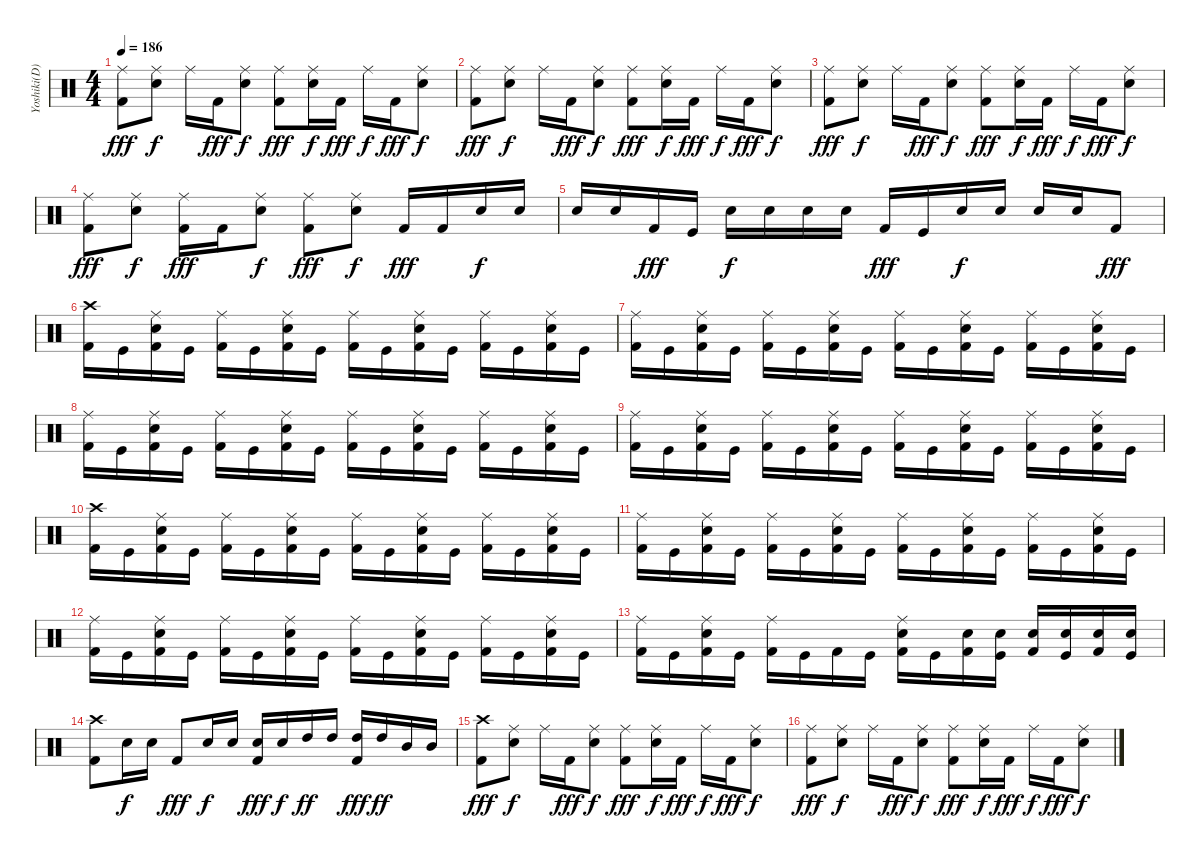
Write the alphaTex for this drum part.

\track ("Yoshiki(D)" "Yoshiki(D)") {instrument percussion}
\staff {score}
\articulation defaults
\ts (4 4)
\tempo 186
\clef neutral
\ks c
("Ride (middle)" "Kick (hit) 2").8{dy fff} ("Ride (middle)" "Electric Snare (hit)").8{dy f} "Ride (middle)".16 "Kick (hit) 2".16{dy fff} ("Ride (middle)" "Electric Snare (hit)").8{dy f} ("Ride (middle)" "Kick (hit) 2").8{dy fff} ("Ride (middle)" "Electric Snare (hit)").16{dy f} "Kick (hit) 2".16{dy fff} "Ride (middle)".16{dy f} "Kick (hit) 2".16{dy fff} ("Ride (middle)" "Electric Snare (hit)").8{dy f} |
("Ride (middle)" "Kick (hit) 2").8{dy fff} ("Ride (middle)" "Electric Snare (hit)").8{dy f} "Ride (middle)".16 "Kick (hit) 2".16{dy fff} ("Ride (middle)" "Electric Snare (hit)").8{dy f} ("Ride (middle)" "Kick (hit) 2").8{dy fff} ("Ride (middle)" "Electric Snare (hit)").16{dy f} "Kick (hit) 2".16{dy fff} "Ride (middle)".16{dy f} "Kick (hit) 2".16{dy fff} ("Ride (middle)" "Electric Snare (hit)").8{dy f} |
("Ride (middle)" "Kick (hit) 2").8{dy fff} ("Ride (middle)" "Electric Snare (hit)").8{dy f} "Ride (middle)".16 "Kick (hit) 2".16{dy fff} ("Ride (middle)" "Electric Snare (hit)").8{dy f} ("Ride (middle)" "Kick (hit) 2").8{dy fff} ("Ride (middle)" "Electric Snare (hit)").16{dy f} "Kick (hit) 2".16{dy fff} "Ride (middle)".16{dy f} "Kick (hit) 2".16{dy fff} ("Ride (middle)" "Electric Snare (hit)").8{dy f} |
("Ride (middle)" "Kick (hit) 2").8{dy fff} ("Ride (middle)" "Electric Snare (hit)").8{dy f} ("Ride (middle)" "Kick (hit) 2").16{dy fff} "Kick (hit) 2".16 ("Ride (middle)" "Electric Snare (hit)").8{dy f} ("Ride (middle)" "Kick (hit) 2").8{dy fff} ("Ride (middle)" "Electric Snare (hit)").8{dy f} "Kick (hit) 2".16{dy fff} "Kick (hit) 2".16 "Electric Snare (hit)".16{dy f} "Electric Snare (hit)".16 |
"Electric Snare (hit)".16 "Electric Snare (hit)".16 "Kick (hit) 2".16{dy fff} "Kick (hit)".16 "Electric Snare (hit)".16{dy f} "Electric Snare (hit)".16 "Electric Snare (hit)".16 "Electric Snare (hit)".16 "Kick (hit) 2".16{dy fff} "Kick (hit)".16 "Electric Snare (hit)".16{dy f} "Electric Snare (hit)".16 "Electric Snare (hit)".16 "Electric Snare (hit)".16 "Kick (hit) 2".8{dy fff} |
("Crash high (hit)" "Kick (hit) 2").16 "Kick (hit)".16 ("Ride (middle)" "Electric Snare (hit)" "Kick (hit) 2").16 "Kick (hit)".16 ("Ride (middle)" "Kick (hit) 2").16 "Kick (hit)".16 ("Ride (middle)" "Electric Snare (hit)" "Kick (hit) 2").16 "Kick (hit)".16 ("Ride (middle)" "Kick (hit) 2").16 "Kick (hit)".16 ("Ride (middle)" "Electric Snare (hit)" "Kick (hit) 2").16 "Kick (hit)".16 ("Ride (middle)" "Kick (hit) 2").16 "Kick (hit)".16 ("Ride (middle)" "Electric Snare (hit)" "Kick (hit) 2").16 "Kick (hit)".16 |
("Ride (middle)" "Kick (hit) 2").16 "Kick (hit)".16 ("Ride (middle)" "Electric Snare (hit)" "Kick (hit) 2").16 "Kick (hit)".16 ("Ride (middle)" "Kick (hit) 2").16 "Kick (hit)".16 ("Ride (middle)" "Electric Snare (hit)" "Kick (hit) 2").16 "Kick (hit)".16 ("Ride (middle)" "Kick (hit) 2").16 "Kick (hit)".16 ("Ride (middle)" "Electric Snare (hit)" "Kick (hit) 2").16 "Kick (hit)".16 ("Ride (middle)" "Kick (hit) 2").16 "Kick (hit)".16 ("Ride (middle)" "Electric Snare (hit)" "Kick (hit) 2").16 "Kick (hit)".16 |
("Ride (middle)" "Kick (hit) 2").16 "Kick (hit)".16 ("Ride (middle)" "Electric Snare (hit)" "Kick (hit) 2").16 "Kick (hit)".16 ("Ride (middle)" "Kick (hit) 2").16 "Kick (hit)".16 ("Ride (middle)" "Electric Snare (hit)" "Kick (hit) 2").16 "Kick (hit)".16 ("Ride (middle)" "Kick (hit) 2").16 "Kick (hit)".16 ("Ride (middle)" "Electric Snare (hit)" "Kick (hit) 2").16 "Kick (hit)".16 ("Ride (middle)" "Kick (hit) 2").16 "Kick (hit)".16 ("Ride (middle)" "Electric Snare (hit)" "Kick (hit) 2").16 "Kick (hit)".16 |
("Ride (middle)" "Kick (hit) 2").16 "Kick (hit)".16 ("Ride (middle)" "Electric Snare (hit)" "Kick (hit) 2").16 "Kick (hit)".16 ("Ride (middle)" "Kick (hit) 2").16 "Kick (hit)".16 ("Ride (middle)" "Electric Snare (hit)" "Kick (hit) 2").16 "Kick (hit)".16 ("Ride (middle)" "Kick (hit) 2").16 "Kick (hit)".16 ("Ride (middle)" "Electric Snare (hit)" "Kick (hit) 2").16 "Kick (hit)".16 ("Ride (middle)" "Kick (hit) 2").16 "Kick (hit)".16 ("Ride (middle)" "Electric Snare (hit)" "Kick (hit) 2").16 "Kick (hit)".16 |
("Crash high (hit)" "Kick (hit) 2").16 "Kick (hit)".16 ("Ride (middle)" "Electric Snare (hit)" "Kick (hit) 2").16 "Kick (hit)".16 ("Ride (middle)" "Kick (hit) 2").16 "Kick (hit)".16 ("Ride (middle)" "Electric Snare (hit)" "Kick (hit) 2").16 "Kick (hit)".16 ("Ride (middle)" "Kick (hit) 2").16 "Kick (hit)".16 ("Ride (middle)" "Electric Snare (hit)" "Kick (hit) 2").16 "Kick (hit)".16 ("Ride (middle)" "Kick (hit) 2").16 "Kick (hit)".16 ("Ride (middle)" "Electric Snare (hit)" "Kick (hit) 2").16 "Kick (hit)".16 |
("Ride (middle)" "Kick (hit) 2").16 "Kick (hit)".16 ("Ride (middle)" "Electric Snare (hit)" "Kick (hit) 2").16 "Kick (hit)".16 ("Ride (middle)" "Kick (hit) 2").16 "Kick (hit)".16 ("Ride (middle)" "Electric Snare (hit)" "Kick (hit) 2").16 "Kick (hit)".16 ("Ride (middle)" "Kick (hit) 2").16 "Kick (hit)".16 ("Ride (middle)" "Electric Snare (hit)" "Kick (hit) 2").16 "Kick (hit)".16 ("Ride (middle)" "Kick (hit) 2").16 "Kick (hit)".16 ("Ride (middle)" "Electric Snare (hit)" "Kick (hit) 2").16 "Kick (hit)".16 |
("Ride (middle)" "Kick (hit) 2").16 "Kick (hit)".16 ("Ride (middle)" "Electric Snare (hit)" "Kick (hit) 2").16 "Kick (hit)".16 ("Ride (middle)" "Kick (hit) 2").16 "Kick (hit)".16 ("Ride (middle)" "Electric Snare (hit)" "Kick (hit) 2").16 "Kick (hit)".16 ("Ride (middle)" "Kick (hit) 2").16 "Kick (hit)".16 ("Ride (middle)" "Electric Snare (hit)" "Kick (hit) 2").16 "Kick (hit)".16 ("Ride (middle)" "Kick (hit) 2").16 "Kick (hit)".16 ("Ride (middle)" "Electric Snare (hit)" "Kick (hit) 2").16 "Kick (hit)".16 |
("Ride (middle)" "Kick (hit) 2").16 "Kick (hit)".16 ("Ride (middle)" "Electric Snare (hit)" "Kick (hit) 2").16 "Kick (hit)".16 ("Ride (middle)" "Kick (hit) 2").16 "Kick (hit)".16 "Kick (hit) 2".16 "Kick (hit)".16 ("Ride (middle)" "Electric Snare (hit)" "Kick (hit) 2").16 "Kick (hit)".16 ("Electric Snare (hit)" "Kick (hit) 2").16 ("Electric Snare (hit)" "Kick (hit)").16 ("Electric Snare (hit)" "Kick (hit) 2").16 ("Electric Snare (hit)" "Kick (hit)").16 ("Electric Snare (hit)" "Kick (hit) 2").16 ("Electric Snare (hit)" "Kick (hit)").16 |
("Crash high (hit)" "Kick (hit) 2").8 "Electric Snare (hit)".16{dy f} "Electric Snare (hit)".16 "Kick (hit) 2".8{dy fff} "Electric Snare (hit)".16{dy f} "Electric Snare (hit)".16 ("Electric Snare (hit)" "Kick (hit) 2").16{dy fff} "Electric Snare (hit)".16{dy f} "High Tom (hit)".16{dy ff} "High Tom (hit)".16 ("High Tom (hit)" "Kick (hit) 2").16{dy fff} "High Tom (hit)".16{dy ff} "Mid Tom (hit)".16 "Mid Tom (hit)".16 |
("Crash high (hit)" "Kick (hit) 2").8{dy fff} ("Ride (middle)" "Electric Snare (hit)").8{dy f} "Ride (middle)".16 "Kick (hit) 2".16{dy fff} ("Ride (middle)" "Electric Snare (hit)").8{dy f} ("Ride (middle)" "Kick (hit) 2").8{dy fff} ("Ride (middle)" "Electric Snare (hit)").16{dy f} "Kick (hit) 2".16{dy fff} "Ride (middle)".16{dy f} "Kick (hit) 2".16{dy fff} ("Ride (middle)" "Electric Snare (hit)").8{dy f} |
("Ride (middle)" "Kick (hit) 2").8{dy fff} ("Ride (middle)" "Electric Snare (hit)").8{dy f} "Ride (middle)".16 "Kick (hit) 2".16{dy fff} ("Ride (middle)" "Electric Snare (hit)").8{dy f} ("Ride (middle)" "Kick (hit) 2").8{dy fff} ("Ride (middle)" "Electric Snare (hit)").16{dy f} "Kick (hit) 2".16{dy fff} "Ride (middle)".16{dy f} "Kick (hit) 2".16{dy fff} ("Ride (middle)" "Electric Snare (hit)").8{dy f}
